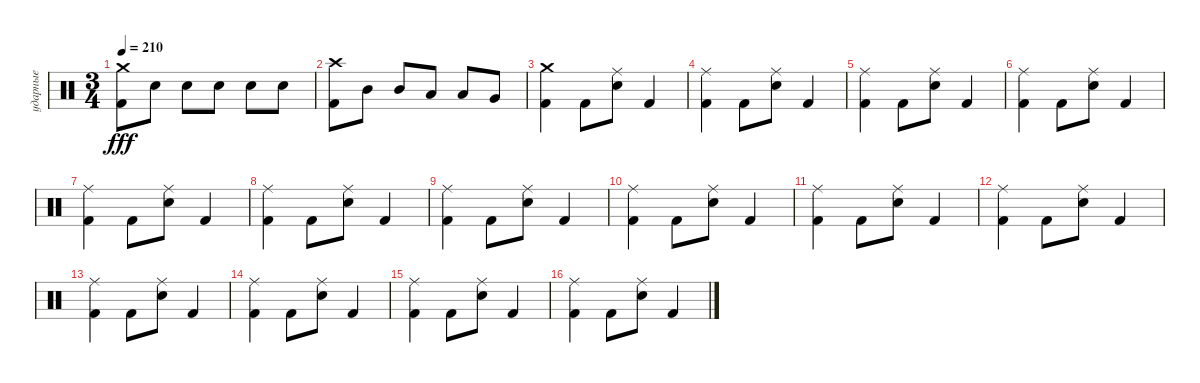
\track ("ударные" "ударные") {instrument percussion}
\staff {score}
\articulation defaults
\ts (3 4)
\tempo 210
\clef neutral
\ks c
("Crash medium (hit)" "Kick (hit) 2").8{dy fff} "Snare (hit) 2".8 "Snare (hit) 2".8 "Snare (hit) 2".8 "Snare (hit) 2".8 "Snare (hit) 2".8 |
("Crash high (hit)" "Kick (hit) 2").8 "Mid Tom (hit)".8 "Mid Tom (hit)".8 "Low Tom (hit)".8 "Low Tom (hit)".8 "Very Low Tom (hit)".8 |
("Crash medium (hit)" "Kick (hit) 2").4 "Kick (hit) 2".8 ("Ride (middle)" "Snare (hit) 2").8 "Kick (hit) 2".4 |
("Ride (middle)" "Kick (hit) 2").4 "Kick (hit) 2".8 ("Ride (middle)" "Snare (hit) 2").8 "Kick (hit) 2".4 |
("Ride (middle)" "Kick (hit) 2").4 "Kick (hit) 2".8 ("Ride (middle)" "Snare (hit) 2").8 "Kick (hit) 2".4 |
("Ride (middle)" "Kick (hit) 2").4 "Kick (hit) 2".8 ("Ride (middle)" "Snare (hit) 2").8 "Kick (hit) 2".4 |
("Ride (middle)" "Kick (hit) 2").4 "Kick (hit) 2".8 ("Ride (middle)" "Snare (hit) 2").8 "Kick (hit) 2".4 |
("Ride (middle)" "Kick (hit) 2").4 "Kick (hit) 2".8 ("Ride (middle)" "Snare (hit) 2").8 "Kick (hit) 2".4 |
("Ride (middle)" "Kick (hit) 2").4 "Kick (hit) 2".8 ("Ride (middle)" "Snare (hit) 2").8 "Kick (hit) 2".4 |
("Ride (middle)" "Kick (hit) 2").4 "Kick (hit) 2".8 ("Ride (middle)" "Snare (hit) 2").8 "Kick (hit) 2".4 |
("Ride (middle)" "Kick (hit) 2").4 "Kick (hit) 2".8 ("Ride (middle)" "Snare (hit) 2").8 "Kick (hit) 2".4 |
("Ride (middle)" "Kick (hit) 2").4 "Kick (hit) 2".8 ("Ride (middle)" "Snare (hit) 2").8 "Kick (hit) 2".4 |
("Ride (middle)" "Kick (hit) 2").4 "Kick (hit) 2".8 ("Ride (middle)" "Snare (hit) 2").8 "Kick (hit) 2".4 |
("Ride (middle)" "Kick (hit) 2").4 "Kick (hit) 2".8 ("Ride (middle)" "Snare (hit) 2").8 "Kick (hit) 2".4 |
("Ride (middle)" "Kick (hit) 2").4 "Kick (hit) 2".8 ("Ride (middle)" "Snare (hit) 2").8 "Kick (hit) 2".4 |
("Ride (middle)" "Kick (hit) 2").4 "Kick (hit) 2".8 ("Ride (middle)" "Snare (hit) 2").8 "Kick (hit) 2".4
